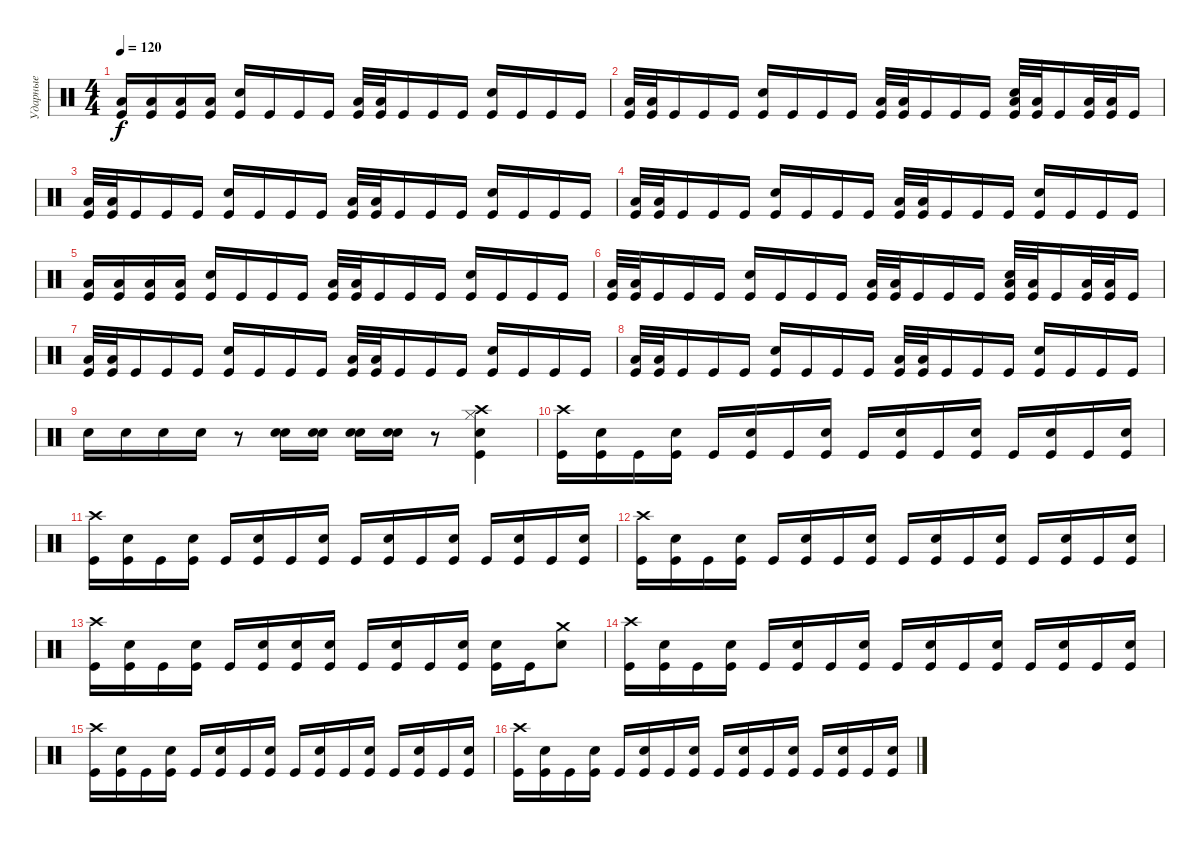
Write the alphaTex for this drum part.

\track ("Ударные" "Ударные") {instrument percussion}
\staff {score}
\articulation defaults
\ts (4 4)
\tempo 120
\clef neutral
\ks c
("Low Tom (hit)" "Kick (hit)").16{dy f} ("Low Tom (hit)" "Kick (hit)").16 ("Low Tom (hit)" "Kick (hit)").16 ("Low Tom (hit)" "Kick (hit)").16 ("Electric Snare (hit)" "Kick (hit)").16 "Kick (hit)".16 "Kick (hit)".16 "Kick (hit)".16 ("Low Tom (hit)" "Kick (hit)").32 ("Low Tom (hit)" "Kick (hit)").32 "Kick (hit)".16 "Kick (hit)".16 "Kick (hit)".16 ("Electric Snare (hit)" "Kick (hit)").16 "Kick (hit)".16 "Kick (hit)".16 "Kick (hit)".16 |
("Low Tom (hit)" "Kick (hit)").32 ("Low Tom (hit)" "Kick (hit)").32 "Kick (hit)".16 "Kick (hit)".16 "Kick (hit)".16 ("Electric Snare (hit)" "Kick (hit)").16 "Kick (hit)".16 "Kick (hit)".16 "Kick (hit)".16 ("Low Tom (hit)" "Kick (hit)").32 ("Low Tom (hit)" "Kick (hit)").32 "Kick (hit)".16 "Kick (hit)".16 "Kick (hit)".16 ("Electric Snare (hit)" "Low Tom (hit)" "Kick (hit)").32 ("Low Tom (hit)" "Kick (hit)").32 "Kick (hit)".16 ("Low Tom (hit)" "Kick (hit)").32 ("Low Tom (hit)" "Kick (hit)").32 "Kick (hit)".16 |
("Low Tom (hit)" "Kick (hit)").32 ("Low Tom (hit)" "Kick (hit)").32 "Kick (hit)".16 "Kick (hit)".16 "Kick (hit)".16 ("Electric Snare (hit)" "Kick (hit)").16 "Kick (hit)".16 "Kick (hit)".16 "Kick (hit)".16 ("Low Tom (hit)" "Kick (hit)").32 ("Low Tom (hit)" "Kick (hit)").32 "Kick (hit)".16 "Kick (hit)".16 "Kick (hit)".16 ("Electric Snare (hit)" "Kick (hit)").16 "Kick (hit)".16 "Kick (hit)".16 "Kick (hit)".16 |
("Low Tom (hit)" "Kick (hit)").32 ("Low Tom (hit)" "Kick (hit)").32 "Kick (hit)".16 "Kick (hit)".16 "Kick (hit)".16 ("Electric Snare (hit)" "Kick (hit)").16 "Kick (hit)".16 "Kick (hit)".16 "Kick (hit)".16 ("Low Tom (hit)" "Kick (hit)").32 ("Low Tom (hit)" "Kick (hit)").32 "Kick (hit)".16 "Kick (hit)".16 "Kick (hit)".16 ("Electric Snare (hit)" "Kick (hit)").16 "Kick (hit)".16 "Kick (hit)".16 "Kick (hit)".16 |
("Low Tom (hit)" "Kick (hit)").16 ("Low Tom (hit)" "Kick (hit)").16 ("Low Tom (hit)" "Kick (hit)").16 ("Low Tom (hit)" "Kick (hit)").16 ("Electric Snare (hit)" "Kick (hit)").16 "Kick (hit)".16 "Kick (hit)".16 "Kick (hit)".16 ("Low Tom (hit)" "Kick (hit)").32 ("Low Tom (hit)" "Kick (hit)").32 "Kick (hit)".16 "Kick (hit)".16 "Kick (hit)".16 ("Electric Snare (hit)" "Kick (hit)").16 "Kick (hit)".16 "Kick (hit)".16 "Kick (hit)".16 |
("Low Tom (hit)" "Kick (hit)").32 ("Low Tom (hit)" "Kick (hit)").32 "Kick (hit)".16 "Kick (hit)".16 "Kick (hit)".16 ("Electric Snare (hit)" "Kick (hit)").16 "Kick (hit)".16 "Kick (hit)".16 "Kick (hit)".16 ("Low Tom (hit)" "Kick (hit)").32 ("Low Tom (hit)" "Kick (hit)").32 "Kick (hit)".16 "Kick (hit)".16 "Kick (hit)".16 ("Electric Snare (hit)" "Low Tom (hit)" "Kick (hit)").32 ("Low Tom (hit)" "Kick (hit)").32 "Kick (hit)".16 ("Low Tom (hit)" "Kick (hit)").32 ("Low Tom (hit)" "Kick (hit)").32 "Kick (hit)".16 |
("Low Tom (hit)" "Kick (hit)").32 ("Low Tom (hit)" "Kick (hit)").32 "Kick (hit)".16 "Kick (hit)".16 "Kick (hit)".16 ("Electric Snare (hit)" "Kick (hit)").16 "Kick (hit)".16 "Kick (hit)".16 "Kick (hit)".16 ("Low Tom (hit)" "Kick (hit)").32 ("Low Tom (hit)" "Kick (hit)").32 "Kick (hit)".16 "Kick (hit)".16 "Kick (hit)".16 ("Electric Snare (hit)" "Kick (hit)").16 "Kick (hit)".16 "Kick (hit)".16 "Kick (hit)".16 |
("Low Tom (hit)" "Kick (hit)").32 ("Low Tom (hit)" "Kick (hit)").32 "Kick (hit)".16 "Kick (hit)".16 "Kick (hit)".16 ("Electric Snare (hit)" "Kick (hit)").16 "Kick (hit)".16 "Kick (hit)".16 "Kick (hit)".16 ("Low Tom (hit)" "Kick (hit)").32 ("Low Tom (hit)" "Kick (hit)").32 "Kick (hit)".16 "Kick (hit)".16 "Kick (hit)".16 ("Electric Snare (hit)" "Kick (hit)").16 "Kick (hit)".16 "Kick (hit)".16 "Kick (hit)".16 |
"Electric Snare (hit)".16 "Electric Snare (hit)".16 "Electric Snare (hit)".16 "Electric Snare (hit)".16 r.8 ("Electric Snare (hit)" "Electric Snare (hit)").16 ("Electric Snare (hit)" "Electric Snare (hit)").16 ("Electric Snare (hit)" "Electric Snare (hit)").16 ("Electric Snare (hit)" "Electric Snare (hit)").16 r.8 ("Crash high (hit)" "Hi-Hat (closed)" "Electric Snare (hit)" "Kick (hit)").4 |
("Crash high (hit)" "Kick (hit)").16 ("Electric Snare (hit)" "Kick (hit)").16 "Kick (hit)".16 ("Electric Snare (hit)" "Kick (hit)").16 "Kick (hit)".16 ("Electric Snare (hit)" "Kick (hit)").16 "Kick (hit)".16 ("Electric Snare (hit)" "Kick (hit)").16 "Kick (hit)".16 ("Electric Snare (hit)" "Kick (hit)").16 "Kick (hit)".16 ("Electric Snare (hit)" "Kick (hit)").16 "Kick (hit)".16 ("Electric Snare (hit)" "Kick (hit)").16 "Kick (hit)".16 ("Electric Snare (hit)" "Kick (hit)").16 |
("Crash high (hit)" "Kick (hit)").16 ("Electric Snare (hit)" "Kick (hit)").16 "Kick (hit)".16 ("Electric Snare (hit)" "Kick (hit)").16 "Kick (hit)".16 ("Electric Snare (hit)" "Kick (hit)").16 "Kick (hit)".16 ("Electric Snare (hit)" "Kick (hit)").16 "Kick (hit)".16 ("Electric Snare (hit)" "Kick (hit)").16 "Kick (hit)".16 ("Electric Snare (hit)" "Kick (hit)").16 "Kick (hit)".16 ("Electric Snare (hit)" "Kick (hit)").16 "Kick (hit)".16 ("Electric Snare (hit)" "Kick (hit)").16 |
("Crash high (hit)" "Kick (hit)").16 ("Electric Snare (hit)" "Kick (hit)").16 "Kick (hit)".16 ("Electric Snare (hit)" "Kick (hit)").16 "Kick (hit)".16 ("Electric Snare (hit)" "Kick (hit)").16 "Kick (hit)".16 ("Electric Snare (hit)" "Kick (hit)").16 "Kick (hit)".16 ("Electric Snare (hit)" "Kick (hit)").16 "Kick (hit)".16 ("Electric Snare (hit)" "Kick (hit)").16 "Kick (hit)".16 ("Electric Snare (hit)" "Kick (hit)").16 "Kick (hit)".16 ("Electric Snare (hit)" "Kick (hit)").16 |
("Crash high (hit)" "Kick (hit)").16 ("Electric Snare (hit)" "Kick (hit)").16 "Kick (hit)".16 ("Electric Snare (hit)" "Kick (hit)").16 "Kick (hit)".16 ("Electric Snare (hit)" "Kick (hit)").16 ("Electric Snare (hit)" "Kick (hit)").16 ("Electric Snare (hit)" "Kick (hit)").16 "Kick (hit)".16 ("Electric Snare (hit)" "Kick (hit)").16 "Kick (hit)".16 ("Electric Snare (hit)" "Kick (hit)").16 ("Electric Snare (hit)" "Kick (hit)").16 "Kick (hit)".16 ("Crash medium (hit)" "Electric Snare (hit)").8 |
("Crash high (hit)" "Kick (hit)").16 ("Electric Snare (hit)" "Kick (hit)").16 "Kick (hit)".16 ("Electric Snare (hit)" "Kick (hit)").16 "Kick (hit)".16 ("Electric Snare (hit)" "Kick (hit)").16 "Kick (hit)".16 ("Electric Snare (hit)" "Kick (hit)").16 "Kick (hit)".16 ("Electric Snare (hit)" "Kick (hit)").16 "Kick (hit)".16 ("Electric Snare (hit)" "Kick (hit)").16 "Kick (hit)".16 ("Electric Snare (hit)" "Kick (hit)").16 "Kick (hit)".16 ("Electric Snare (hit)" "Kick (hit)").16 |
("Crash high (hit)" "Kick (hit)").16 ("Electric Snare (hit)" "Kick (hit)").16 "Kick (hit)".16 ("Electric Snare (hit)" "Kick (hit)").16 "Kick (hit)".16 ("Electric Snare (hit)" "Kick (hit)").16 "Kick (hit)".16 ("Electric Snare (hit)" "Kick (hit)").16 "Kick (hit)".16 ("Electric Snare (hit)" "Kick (hit)").16 "Kick (hit)".16 ("Electric Snare (hit)" "Kick (hit)").16 "Kick (hit)".16 ("Electric Snare (hit)" "Kick (hit)").16 "Kick (hit)".16 ("Electric Snare (hit)" "Kick (hit)").16 |
("Crash high (hit)" "Kick (hit)").16 ("Electric Snare (hit)" "Kick (hit)").16 "Kick (hit)".16 ("Electric Snare (hit)" "Kick (hit)").16 "Kick (hit)".16 ("Electric Snare (hit)" "Kick (hit)").16 "Kick (hit)".16 ("Electric Snare (hit)" "Kick (hit)").16 "Kick (hit)".16 ("Electric Snare (hit)" "Kick (hit)").16 "Kick (hit)".16 ("Electric Snare (hit)" "Kick (hit)").16 "Kick (hit)".16 ("Electric Snare (hit)" "Kick (hit)").16 "Kick (hit)".16 ("Electric Snare (hit)" "Kick (hit)").16
